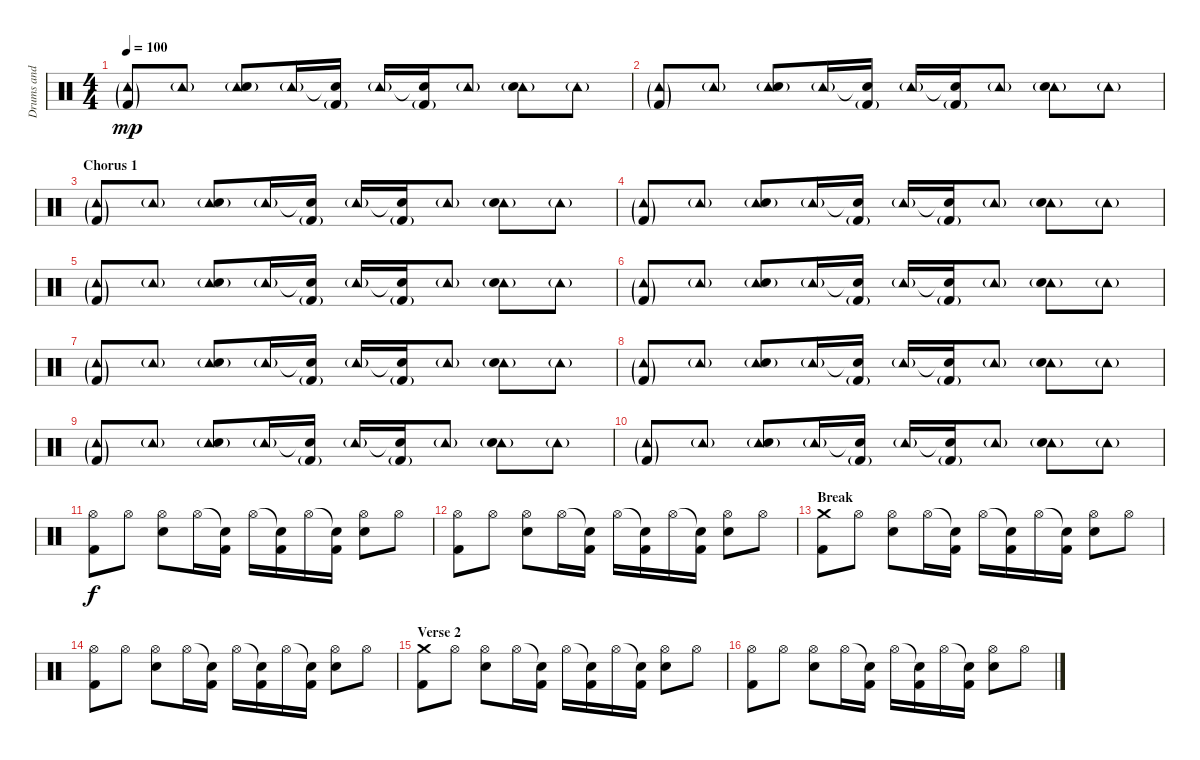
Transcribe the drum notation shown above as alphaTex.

\track ("Drums and Percussion" "Drums and ") {instrument percussion}
\staff {score}
\articulation defaults
\ts (4 4)
\tempo 100
\clef neutral
\ks c
("Tambourine (hit)"{g} "Kick (hit) 2"{g}).8{dy mp} "Tambourine (hit)"{g}.8 ("Tambourine (hit)"{g} "Electric Snare (hit)"{g}).8 "Tambourine (hit)"{g}.16 ("Snare (hit)"{t} "Kick (hit) 2"{g}).16 "Tambourine (hit)"{g}.16 ("Snare (hit)"{t} "Kick (hit) 2"{g}).16 "Tambourine (hit)"{g}.8 ("Tambourine (hit)"{g} "Electric Snare (hit)"{g}).8 "Tambourine (hit)"{g}.8 |
("Tambourine (hit)"{g} "Kick (hit) 2"{g}).8 "Tambourine (hit)"{g}.8 ("Tambourine (hit)"{g} "Electric Snare (hit)"{g}).8 "Tambourine (hit)"{g}.16 ("Snare (hit)"{t} "Kick (hit) 2"{g}).16 "Tambourine (hit)"{g}.16 ("Snare (hit)"{t} "Kick (hit) 2"{g}).16 "Tambourine (hit)"{g}.8 ("Tambourine (hit)"{g} "Electric Snare (hit)"{g}).8 "Tambourine (hit)"{g}.8 |
\section ("" "Chorus 1")
("Tambourine (hit)"{g} "Kick (hit) 2"{g}).8 "Tambourine (hit)"{g}.8 ("Tambourine (hit)"{g} "Electric Snare (hit)"{g}).8 "Tambourine (hit)"{g}.16 ("Snare (hit)"{t} "Kick (hit) 2"{g}).16 "Tambourine (hit)"{g}.16 ("Snare (hit)"{t} "Kick (hit) 2"{g}).16 "Tambourine (hit)"{g}.8 ("Tambourine (hit)"{g} "Electric Snare (hit)"{g}).8 "Tambourine (hit)"{g}.8 |
("Tambourine (hit)"{g} "Kick (hit) 2"{g}).8 "Tambourine (hit)"{g}.8 ("Tambourine (hit)"{g} "Electric Snare (hit)"{g}).8 "Tambourine (hit)"{g}.16 ("Snare (hit)"{t} "Kick (hit) 2"{g}).16 "Tambourine (hit)"{g}.16 ("Snare (hit)"{t} "Kick (hit) 2"{g}).16 "Tambourine (hit)"{g}.8 ("Tambourine (hit)"{g} "Electric Snare (hit)"{g}).8 "Tambourine (hit)"{g}.8 |
("Tambourine (hit)"{g} "Kick (hit) 2"{g}).8 "Tambourine (hit)"{g}.8 ("Tambourine (hit)"{g} "Electric Snare (hit)"{g}).8 "Tambourine (hit)"{g}.16 ("Snare (hit)"{t} "Kick (hit) 2"{g}).16 "Tambourine (hit)"{g}.16 ("Snare (hit)"{t} "Kick (hit) 2"{g}).16 "Tambourine (hit)"{g}.8 ("Tambourine (hit)"{g} "Electric Snare (hit)"{g}).8 "Tambourine (hit)"{g}.8 |
("Tambourine (hit)"{g} "Kick (hit) 2"{g}).8 "Tambourine (hit)"{g}.8 ("Tambourine (hit)"{g} "Electric Snare (hit)"{g}).8 "Tambourine (hit)"{g}.16 ("Snare (hit)"{t} "Kick (hit) 2"{g}).16 "Tambourine (hit)"{g}.16 ("Snare (hit)"{t} "Kick (hit) 2"{g}).16 "Tambourine (hit)"{g}.8 ("Tambourine (hit)"{g} "Electric Snare (hit)"{g}).8 "Tambourine (hit)"{g}.8 |
("Tambourine (hit)"{g} "Kick (hit) 2"{g}).8 "Tambourine (hit)"{g}.8 ("Tambourine (hit)"{g} "Electric Snare (hit)"{g}).8 "Tambourine (hit)"{g}.16 ("Snare (hit)"{t} "Kick (hit) 2"{g}).16 "Tambourine (hit)"{g}.16 ("Snare (hit)"{t} "Kick (hit) 2"{g}).16 "Tambourine (hit)"{g}.8 ("Tambourine (hit)"{g} "Electric Snare (hit)"{g}).8 "Tambourine (hit)"{g}.8 |
("Tambourine (hit)"{g} "Kick (hit) 2"{g}).8 "Tambourine (hit)"{g}.8 ("Tambourine (hit)"{g} "Electric Snare (hit)"{g}).8 "Tambourine (hit)"{g}.16 ("Snare (hit)"{t} "Kick (hit) 2"{g}).16 "Tambourine (hit)"{g}.16 ("Snare (hit)"{t} "Kick (hit) 2"{g}).16 "Tambourine (hit)"{g}.8 ("Tambourine (hit)"{g} "Electric Snare (hit)"{g}).8 "Tambourine (hit)"{g}.8 |
("Tambourine (hit)"{g} "Kick (hit) 2"{g}).8 "Tambourine (hit)"{g}.8 ("Tambourine (hit)"{g} "Electric Snare (hit)"{g}).8 "Tambourine (hit)"{g}.16 ("Snare (hit)"{t} "Kick (hit) 2"{g}).16 "Tambourine (hit)"{g}.16 ("Snare (hit)"{t} "Kick (hit) 2"{g}).16 "Tambourine (hit)"{g}.8 ("Tambourine (hit)"{g} "Electric Snare (hit)"{g}).8 "Tambourine (hit)"{g}.8 |
("Tambourine (hit)"{g} "Kick (hit) 2"{g}).8 "Tambourine (hit)"{g}.8 ("Tambourine (hit)"{g} "Electric Snare (hit)"{g}).8 "Tambourine (hit)"{g}.16 ("Snare (hit)"{t} "Kick (hit) 2"{g}).16 "Tambourine (hit)"{g}.16 ("Snare (hit)"{t} "Kick (hit) 2"{g}).16 "Tambourine (hit)"{g}.8 ("Tambourine (hit)"{g} "Electric Snare (hit)"{g}).8 "Tambourine (hit)"{g}.8 |
("Hi-Hat (open)" "Kick (hit) 2").8{dy f} "Hi-Hat (open)".8 ("Hi-Hat (open)" "Electric Snare (hit)").8 "Hi-Hat (open)".16 ("Snare (hit)"{t} "Kick (hit) 2").16 "Hi-Hat (open)".16 ("Snare (hit)"{t} "Kick (hit) 2").16 "Hi-Hat (open)".16 ("Snare (hit)"{t} "Kick (hit) 2").16 ("Hi-Hat (open)" "Electric Snare (hit)").8 "Hi-Hat (open)".8 |
("Hi-Hat (open)" "Kick (hit) 2").8 "Hi-Hat (open)".8 ("Hi-Hat (open)" "Electric Snare (hit)").8 "Hi-Hat (open)".16 ("Snare (hit)"{t} "Kick (hit) 2").16 "Hi-Hat (open)".16 ("Snare (hit)"{t} "Kick (hit) 2").16 "Hi-Hat (open)".16 ("Snare (hit)"{t} "Kick (hit) 2").16 ("Hi-Hat (open)" "Electric Snare (hit)").8 "Hi-Hat (open)".8 |
\section ("" "Break")
("Crash medium (hit)" "Kick (hit) 2").8 "Hi-Hat (open)".8 ("Hi-Hat (open)" "Electric Snare (hit)").8 "Hi-Hat (open)".16 ("Snare (hit)"{t} "Kick (hit) 2").16 "Hi-Hat (open)".16 ("Snare (hit)"{t} "Kick (hit) 2").16 "Hi-Hat (open)".16 ("Snare (hit)"{t} "Kick (hit) 2").16 ("Hi-Hat (open)" "Electric Snare (hit)").8 "Hi-Hat (open)".8 |
("Hi-Hat (open)" "Kick (hit) 2").8 "Hi-Hat (open)".8 ("Hi-Hat (open)" "Electric Snare (hit)").8 "Hi-Hat (open)".16 ("Snare (hit)"{t} "Kick (hit) 2").16 "Hi-Hat (open)".16 ("Snare (hit)"{t} "Kick (hit) 2").16 "Hi-Hat (open)".16 ("Snare (hit)"{t} "Kick (hit) 2").16 ("Hi-Hat (open)" "Electric Snare (hit)").8 "Hi-Hat (open)".8 |
\section ("" "Verse 2")
("Crash medium (hit)" "Kick (hit) 2").8 "Hi-Hat (open)".8 ("Hi-Hat (open)" "Electric Snare (hit)").8 "Hi-Hat (open)".16 ("Snare (hit)"{t} "Kick (hit) 2").16 "Hi-Hat (open)".16 ("Snare (hit)"{t} "Kick (hit) 2").16 "Hi-Hat (open)".16 ("Snare (hit)"{t} "Kick (hit) 2").16 ("Hi-Hat (open)" "Electric Snare (hit)").8 "Hi-Hat (open)".8 |
("Hi-Hat (open)" "Kick (hit) 2").8 "Hi-Hat (open)".8 ("Hi-Hat (open)" "Electric Snare (hit)").8 "Hi-Hat (open)".16 ("Snare (hit)"{t} "Kick (hit) 2").16 "Hi-Hat (open)".16 ("Snare (hit)"{t} "Kick (hit) 2").16 "Hi-Hat (open)".16 ("Snare (hit)"{t} "Kick (hit) 2").16 ("Hi-Hat (open)" "Electric Snare (hit)").8 "Hi-Hat (open)".8
